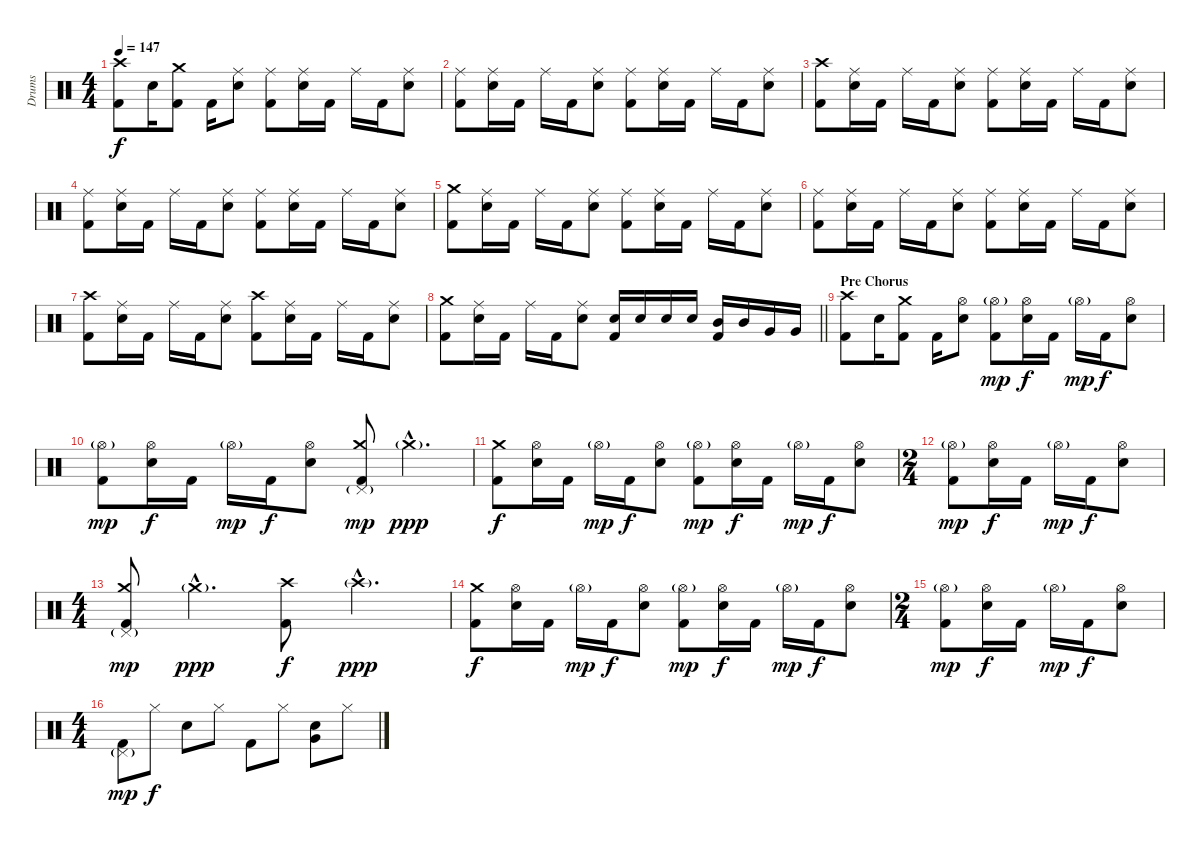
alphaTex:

\track ("Drums" "Drums") {instrument percussion}
\staff {score}
\articulation defaults
\ts (4 4)
\tempo 147
\clef neutral
\ks aminor
("Crash high (hit)" "Kick (hit) 2").8{dy f} "Electric Snare (hit)".16 ("Crash medium (hit)" "Kick (hit) 2").8 "Kick (hit) 2".16 ("Ride (middle)" "Electric Snare (hit)").8 ("Ride (middle)" "Kick (hit) 2").8 ("Ride (middle)" "Electric Snare (hit)").16 "Kick (hit) 2".16 "Ride (middle)".16 "Kick (hit) 2".16 ("Ride (middle)" "Electric Snare (hit)").8 |
("Ride (middle)" "Kick (hit) 2").8 ("Ride (middle)" "Electric Snare (hit)").16 "Kick (hit) 2".16 "Ride (middle)".16 "Kick (hit) 2".16 ("Ride (middle)" "Electric Snare (hit)").8 ("Ride (middle)" "Kick (hit) 2").8 ("Ride (middle)" "Electric Snare (hit)").16 "Kick (hit) 2".16 "Ride (middle)".16 "Kick (hit) 2".16 ("Ride (middle)" "Electric Snare (hit)").8 |
("Crash high (hit)" "Kick (hit) 2").8 ("Ride (middle)" "Electric Snare (hit)").16 "Kick (hit) 2".16 "Ride (middle)".16 "Kick (hit) 2".16 ("Ride (middle)" "Electric Snare (hit)").8 ("Ride (middle)" "Kick (hit) 2").8 ("Ride (middle)" "Electric Snare (hit)").16 "Kick (hit) 2".16 "Ride (middle)".16 "Kick (hit) 2".16 ("Ride (middle)" "Electric Snare (hit)").8 |
("Ride (middle)" "Kick (hit) 2").8 ("Ride (middle)" "Electric Snare (hit)").16 "Kick (hit) 2".16 "Ride (middle)".16 "Kick (hit) 2".16 ("Ride (middle)" "Electric Snare (hit)").8 ("Ride (middle)" "Kick (hit) 2").8 ("Ride (middle)" "Electric Snare (hit)").16 "Kick (hit) 2".16 "Ride (middle)".16 "Kick (hit) 2".16 ("Ride (middle)" "Electric Snare (hit)").8 |
("Crash medium (hit)" "Kick (hit) 2").8 ("Ride (middle)" "Electric Snare (hit)").16 "Kick (hit) 2".16 "Ride (middle)".16 "Kick (hit) 2".16 ("Ride (middle)" "Electric Snare (hit)").8 ("Ride (middle)" "Kick (hit) 2").8 ("Ride (middle)" "Electric Snare (hit)").16 "Kick (hit) 2".16 "Ride (middle)".16 "Kick (hit) 2".16 ("Ride (middle)" "Electric Snare (hit)").8 |
("Ride (middle)" "Kick (hit) 2").8 ("Ride (middle)" "Electric Snare (hit)").16 "Kick (hit) 2".16 "Ride (middle)".16 "Kick (hit) 2".16 ("Ride (middle)" "Electric Snare (hit)").8 ("Ride (middle)" "Kick (hit) 2").8 ("Ride (middle)" "Electric Snare (hit)").16 "Kick (hit) 2".16 "Ride (middle)".16 "Kick (hit) 2".16 ("Ride (middle)" "Electric Snare (hit)").8 |
("Crash high (hit)" "Kick (hit) 2").8 ("Ride (middle)" "Electric Snare (hit)").16 "Kick (hit) 2".16 "Ride (middle)".16 "Kick (hit) 2".16 ("Ride (middle)" "Electric Snare (hit)").8 ("Crash high (hit)" "Kick (hit) 2").8 ("Ride (middle)" "Electric Snare (hit)").16 "Kick (hit) 2".16 "Ride (middle)".16 "Kick (hit) 2".16 ("Ride (middle)" "Electric Snare (hit)").8 |
\barLineRight lightlight
("Crash medium (hit)" "Kick (hit) 2").8 ("Ride (middle)" "Electric Snare (hit)").16 "Kick (hit) 2".16 "Ride (middle)".16 "Kick (hit) 2".16 ("Ride (middle)" "Electric Snare (hit)").8 ("Electric Snare (hit)" "Kick (hit) 2").16 "Electric Snare (hit)".16 "Electric Snare (hit)".16 "Electric Snare (hit)".16 ("Mid Tom (hit)" "Kick (hit) 2").16 "Mid Tom (hit)".16 "Very Low Tom (hit)".16 "Very Low Tom (hit)".16 |
\section ("" "Pre Chorus")
("Crash high (hit)" "Kick (hit) 2").8 "Electric Snare (hit)".16 ("Crash medium (hit)" "Kick (hit) 2").8 "Kick (hit) 2".16 ("Hi-Hat (open)" "Electric Snare (hit)").8 ("Hi-Hat (open)"{g} "Kick (hit) 2").8{dy mp} ("Hi-Hat (open)" "Electric Snare (hit)").16{dy f} "Kick (hit) 2".16 "Hi-Hat (open)"{g}.16{dy mp} "Kick (hit) 2".16{dy f} ("Hi-Hat (open)" "Electric Snare (hit)").8 |
("Hi-Hat (open)"{g} "Kick (hit) 2").8{dy mp} ("Hi-Hat (open)" "Electric Snare (hit)").16{dy f} "Kick (hit) 2".16 "Hi-Hat (open)"{g}.16{dy mp} "Kick (hit) 2".16{dy f} ("Hi-Hat (open)" "Electric Snare (hit)").8 ("Crash medium (hit)" "Pedal Hi-Hat (hit)"{g} "Kick (hit) 2").8{dy mp} "Crash medium (hit)"{g hac}.4{d dy ppp} |
("Crash medium (hit)" "Kick (hit) 2").8{dy f} ("Hi-Hat (open)" "Electric Snare (hit)").16 "Kick (hit) 2".16 "Hi-Hat (open)"{g}.16{dy mp} "Kick (hit) 2".16{dy f} ("Hi-Hat (open)" "Electric Snare (hit)").8 ("Hi-Hat (open)"{g} "Kick (hit) 2").8{dy mp} ("Hi-Hat (open)" "Electric Snare (hit)").16{dy f} "Kick (hit) 2".16 "Hi-Hat (open)"{g}.16{dy mp} "Kick (hit) 2".16{dy f} ("Hi-Hat (open)" "Electric Snare (hit)").8 |
\ts (2 4)
("Hi-Hat (open)"{g} "Kick (hit) 2").8{dy mp} ("Hi-Hat (open)" "Electric Snare (hit)").16{dy f} "Kick (hit) 2".16 "Hi-Hat (open)"{g}.16{dy mp} "Kick (hit) 2".16{dy f} ("Hi-Hat (open)" "Electric Snare (hit)").8 |
\ts (4 4)
("Crash medium (hit)" "Pedal Hi-Hat (hit)"{g} "Kick (hit) 2").8{dy mp} "Crash medium (hit)"{g hac}.4{d dy ppp} ("Crash high (hit)" "Kick (hit) 2").8{dy f} "Crash high (hit)"{g hac}.4{d dy ppp} |
("Crash medium (hit)" "Kick (hit) 2").8{dy f} ("Hi-Hat (open)" "Electric Snare (hit)").16 "Kick (hit) 2".16 "Hi-Hat (open)"{g}.16{dy mp} "Kick (hit) 2".16{dy f} ("Hi-Hat (open)" "Electric Snare (hit)").8 ("Hi-Hat (open)"{g} "Kick (hit) 2").8{dy mp} ("Hi-Hat (open)" "Electric Snare (hit)").16{dy f} "Kick (hit) 2".16 "Hi-Hat (open)"{g}.16{dy mp} "Kick (hit) 2".16{dy f} ("Hi-Hat (open)" "Electric Snare (hit)").8 |
\ts (2 4)
("Hi-Hat (open)"{g} "Kick (hit) 2").8{dy mp} ("Hi-Hat (open)" "Electric Snare (hit)").16{dy f} "Kick (hit) 2".16 "Hi-Hat (open)"{g}.16{dy mp} "Kick (hit) 2".16{dy f} ("Hi-Hat (open)" "Electric Snare (hit)").8 |
\ts (4 4)
("Pedal Hi-Hat (hit)"{g} "Kick (hit) 2").8{dy mp} "Hi-Hat (closed)".8{dy f} "Electric Snare (hit)".8 "Hi-Hat (closed)".8 "Kick (hit) 2".8 "Hi-Hat (closed)".8 ("Electric Snare (hit)" "Very Low Tom (hit)").8 "Hi-Hat (closed)".8
